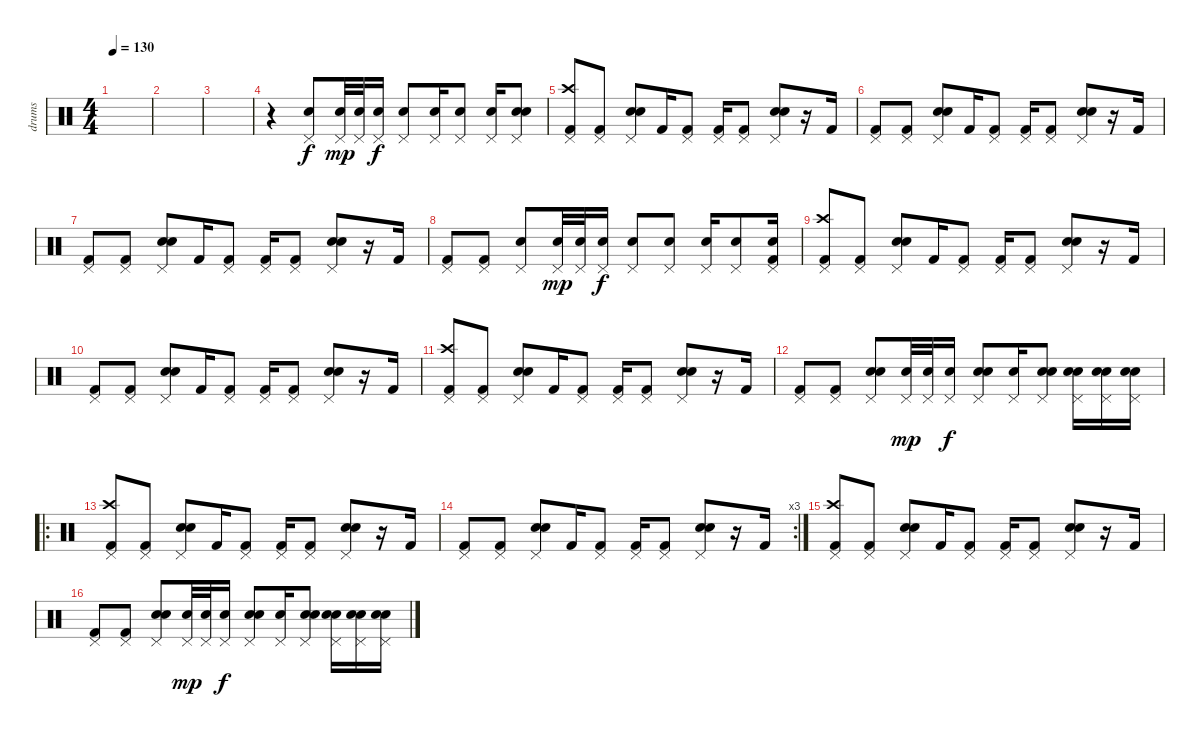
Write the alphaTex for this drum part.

\track ("drums" "drums") {instrument percussion}
\staff {score}
\articulation defaults
\ts (4 4)
\tempo 130
\clef neutral
\ks c
|
|
|
r.4 ("Electric Snare (hit)" "Pedal Hi-Hat (hit)").8 ("Electric Snare (hit)" "Pedal Hi-Hat (hit)").32{dy mp} ("Electric Snare (hit)" "Pedal Hi-Hat (hit)").32 ("Electric Snare (hit)" "Pedal Hi-Hat (hit)").16{dy f} ("Electric Snare (hit)" "Pedal Hi-Hat (hit)").8 ("Electric Snare (hit)" "Pedal Hi-Hat (hit)").16 ("Electric Snare (hit)" "Pedal Hi-Hat (hit)").8 ("Electric Snare (hit)" "Pedal Hi-Hat (hit)").16 ("Snare (hit) 2" "Electric Snare (hit)" "Pedal Hi-Hat (hit)").8 |
("Crash high (hit)" "Kick (hit) 2" "Pedal Hi-Hat (hit)").8 ("Kick (hit) 2" "Pedal Hi-Hat (hit)").8 ("Electric Snare (hit)" "Snare (hit) 2" "Pedal Hi-Hat (hit)").8 "Kick (hit) 2".16 ("Kick (hit) 2" "Pedal Hi-Hat (hit)").8 ("Kick (hit) 2" "Pedal Hi-Hat (hit)").16 ("Kick (hit) 2" "Pedal Hi-Hat (hit)").8 ("Electric Snare (hit)" "Snare (hit) 2" "Pedal Hi-Hat (hit)").8 r.16 "Kick (hit) 2".16 |
("Kick (hit) 2" "Pedal Hi-Hat (hit)").8 ("Kick (hit) 2" "Pedal Hi-Hat (hit)").8 ("Electric Snare (hit)" "Snare (hit) 2" "Pedal Hi-Hat (hit)").8 "Kick (hit) 2".16 ("Kick (hit) 2" "Pedal Hi-Hat (hit)").8 ("Kick (hit) 2" "Pedal Hi-Hat (hit)").16 ("Kick (hit) 2" "Pedal Hi-Hat (hit)").8 ("Electric Snare (hit)" "Snare (hit) 2" "Pedal Hi-Hat (hit)").8 r.16 "Kick (hit) 2".16 |
("Kick (hit) 2" "Pedal Hi-Hat (hit)").8 ("Kick (hit) 2" "Pedal Hi-Hat (hit)").8 ("Electric Snare (hit)" "Snare (hit) 2" "Pedal Hi-Hat (hit)").8 "Kick (hit) 2".16 ("Kick (hit) 2" "Pedal Hi-Hat (hit)").8 ("Kick (hit) 2" "Pedal Hi-Hat (hit)").16 ("Kick (hit) 2" "Pedal Hi-Hat (hit)").8 ("Electric Snare (hit)" "Snare (hit) 2" "Pedal Hi-Hat (hit)").8 r.16 "Kick (hit) 2".16 |
("Kick (hit) 2" "Pedal Hi-Hat (hit)").8 ("Kick (hit) 2" "Pedal Hi-Hat (hit)").8 ("Electric Snare (hit)" "Pedal Hi-Hat (hit)").8 ("Electric Snare (hit)" "Pedal Hi-Hat (hit)").32{dy mp} ("Electric Snare (hit)" "Pedal Hi-Hat (hit)").32 ("Electric Snare (hit)" "Pedal Hi-Hat (hit)").16{dy f} ("Electric Snare (hit)" "Pedal Hi-Hat (hit)").8 ("Electric Snare (hit)" "Pedal Hi-Hat (hit)").8 ("Electric Snare (hit)" "Pedal Hi-Hat (hit)").16 ("Electric Snare (hit)" "Pedal Hi-Hat (hit)").8 ("Kick (hit) 2" "Electric Snare (hit)" "Pedal Hi-Hat (hit)").16 |
("Crash high (hit)" "Kick (hit) 2" "Pedal Hi-Hat (hit)").8 ("Kick (hit) 2" "Pedal Hi-Hat (hit)").8 ("Electric Snare (hit)" "Snare (hit) 2" "Pedal Hi-Hat (hit)").8 "Kick (hit) 2".16 ("Kick (hit) 2" "Pedal Hi-Hat (hit)").8 ("Kick (hit) 2" "Pedal Hi-Hat (hit)").16 ("Kick (hit) 2" "Pedal Hi-Hat (hit)").8 ("Electric Snare (hit)" "Snare (hit) 2" "Pedal Hi-Hat (hit)").8 r.16 "Kick (hit) 2".16 |
("Kick (hit) 2" "Pedal Hi-Hat (hit)").8 ("Kick (hit) 2" "Pedal Hi-Hat (hit)").8 ("Electric Snare (hit)" "Snare (hit) 2" "Pedal Hi-Hat (hit)").8 "Kick (hit) 2".16 ("Kick (hit) 2" "Pedal Hi-Hat (hit)").8 ("Kick (hit) 2" "Pedal Hi-Hat (hit)").16 ("Kick (hit) 2" "Pedal Hi-Hat (hit)").8 ("Electric Snare (hit)" "Snare (hit) 2" "Pedal Hi-Hat (hit)").8 r.16 "Kick (hit) 2".16 |
("Crash high (hit)" "Kick (hit) 2" "Pedal Hi-Hat (hit)").8 ("Kick (hit) 2" "Pedal Hi-Hat (hit)").8 ("Electric Snare (hit)" "Snare (hit) 2" "Pedal Hi-Hat (hit)").8 "Kick (hit) 2".16 ("Kick (hit) 2" "Pedal Hi-Hat (hit)").8 ("Kick (hit) 2" "Pedal Hi-Hat (hit)").16 ("Kick (hit) 2" "Pedal Hi-Hat (hit)").8 ("Electric Snare (hit)" "Snare (hit) 2" "Pedal Hi-Hat (hit)").8 r.16 "Kick (hit) 2".16 |
("Kick (hit) 2" "Pedal Hi-Hat (hit)").8 ("Kick (hit) 2" "Pedal Hi-Hat (hit)").8 ("Electric Snare (hit)" "Snare (hit) 2" "Pedal Hi-Hat (hit)").8 ("Electric Snare (hit)" "Pedal Hi-Hat (hit)").32{dy mp} ("Electric Snare (hit)" "Pedal Hi-Hat (hit)").32 ("Electric Snare (hit)" "Pedal Hi-Hat (hit)").16{dy f} ("Snare (hit) 2" "Electric Snare (hit)" "Pedal Hi-Hat (hit)").8 ("Electric Snare (hit)" "Pedal Hi-Hat (hit)").16 ("Snare (hit) 2" "Electric Snare (hit)" "Pedal Hi-Hat (hit)").8 ("Snare (hit) 2" "Electric Snare (hit)" "Pedal Hi-Hat (hit)").16 ("Snare (hit) 2" "Electric Snare (hit)" "Pedal Hi-Hat (hit)").16 ("Snare (hit) 2" "Electric Snare (hit)" "Pedal Hi-Hat (hit)").16 |
\ro
("Crash high (hit)" "Kick (hit) 2" "Pedal Hi-Hat (hit)").8 ("Kick (hit) 2" "Pedal Hi-Hat (hit)").8 ("Electric Snare (hit)" "Snare (hit) 2" "Pedal Hi-Hat (hit)").8 "Kick (hit) 2".16 ("Kick (hit) 2" "Pedal Hi-Hat (hit)").8 ("Kick (hit) 2" "Pedal Hi-Hat (hit)").16 ("Kick (hit) 2" "Pedal Hi-Hat (hit)").8 ("Electric Snare (hit)" "Snare (hit) 2" "Pedal Hi-Hat (hit)").8 r.16 "Kick (hit) 2".16 |
\rc 3
("Kick (hit) 2" "Pedal Hi-Hat (hit)").8 ("Kick (hit) 2" "Pedal Hi-Hat (hit)").8 ("Electric Snare (hit)" "Snare (hit) 2" "Pedal Hi-Hat (hit)").8 "Kick (hit) 2".16 ("Kick (hit) 2" "Pedal Hi-Hat (hit)").8 ("Kick (hit) 2" "Pedal Hi-Hat (hit)").16 ("Kick (hit) 2" "Pedal Hi-Hat (hit)").8 ("Electric Snare (hit)" "Snare (hit) 2" "Pedal Hi-Hat (hit)").8 r.16 "Kick (hit) 2".16 |
("Crash high (hit)" "Kick (hit) 2" "Pedal Hi-Hat (hit)").8 ("Kick (hit) 2" "Pedal Hi-Hat (hit)").8 ("Electric Snare (hit)" "Snare (hit) 2" "Pedal Hi-Hat (hit)").8 "Kick (hit) 2".16 ("Kick (hit) 2" "Pedal Hi-Hat (hit)").8 ("Kick (hit) 2" "Pedal Hi-Hat (hit)").16 ("Kick (hit) 2" "Pedal Hi-Hat (hit)").8 ("Electric Snare (hit)" "Snare (hit) 2" "Pedal Hi-Hat (hit)").8 r.16 "Kick (hit) 2".16 |
("Kick (hit) 2" "Pedal Hi-Hat (hit)").8 ("Kick (hit) 2" "Pedal Hi-Hat (hit)").8 ("Electric Snare (hit)" "Snare (hit) 2" "Pedal Hi-Hat (hit)").8 ("Electric Snare (hit)" "Pedal Hi-Hat (hit)").32{dy mp} ("Electric Snare (hit)" "Pedal Hi-Hat (hit)").32 ("Electric Snare (hit)" "Pedal Hi-Hat (hit)").16{dy f} ("Snare (hit) 2" "Electric Snare (hit)" "Pedal Hi-Hat (hit)").8 ("Electric Snare (hit)" "Pedal Hi-Hat (hit)").16 ("Snare (hit) 2" "Electric Snare (hit)" "Pedal Hi-Hat (hit)").8 ("Snare (hit) 2" "Electric Snare (hit)" "Pedal Hi-Hat (hit)").16 ("Snare (hit) 2" "Electric Snare (hit)" "Pedal Hi-Hat (hit)").16 ("Snare (hit) 2" "Electric Snare (hit)" "Pedal Hi-Hat (hit)").16
